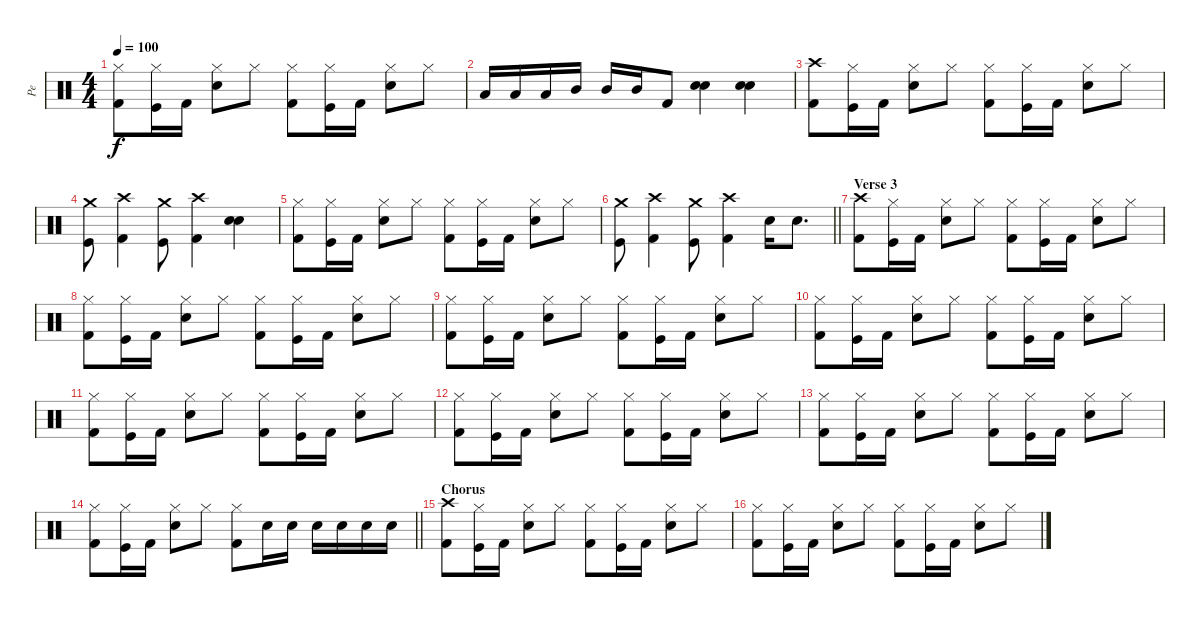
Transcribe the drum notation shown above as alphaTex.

\track ("Pe" "Pe") {instrument percussion}
\staff {score}
\articulation defaults
\ts (4 4)
\tempo 100
\clef neutral
\ks c
("Kick (hit) 2" "Hi-Hat (closed)").8{dy f} ("Kick (hit)" "Hi-Hat (closed)").16 "Kick (hit) 2".16 ("Electric Snare (hit)" "Hi-Hat (closed)").8 "Hi-Hat (closed)".8 ("Kick (hit) 2" "Hi-Hat (closed)").8 ("Kick (hit)" "Hi-Hat (closed)").16 "Kick (hit) 2".16 ("Electric Snare (hit)" "Hi-Hat (closed)").8 "Hi-Hat (closed)".8 |
"Low Tom (hit)".16 "Low Tom (hit)".16 "Low Tom (hit)".16 "Mid Tom (hit)".16 "Mid Tom (hit)".16 "Mid Tom (hit)".16 "Kick (hit) 2".8 ("Electric Snare (hit)" "Electric Snare (hit)").4 ("Electric Snare (hit)" "Electric Snare (hit)").4 |
("Kick (hit) 2" "Crash high (hit)").8 ("Kick (hit)" "Hi-Hat (closed)").16 "Kick (hit) 2".16 ("Electric Snare (hit)" "Hi-Hat (closed)").8 "Hi-Hat (closed)".8 ("Kick (hit) 2" "Hi-Hat (closed)").8 ("Kick (hit)" "Hi-Hat (closed)").16 "Kick (hit) 2".16 ("Electric Snare (hit)" "Hi-Hat (closed)").8 "Hi-Hat (closed)".8 |
("Kick (hit)" "Crash medium (hit)").8 ("Kick (hit) 2" "Crash high (hit)").4 ("Kick (hit)" "Crash medium (hit)").8 ("Kick (hit) 2" "Crash high (hit)").4 ("Electric Snare (hit)" "Electric Snare (hit)").4 |
("Kick (hit) 2" "Hi-Hat (closed)").8 ("Kick (hit)" "Hi-Hat (closed)").16 "Kick (hit) 2".16 ("Electric Snare (hit)" "Hi-Hat (closed)").8 "Hi-Hat (closed)".8 ("Kick (hit) 2" "Hi-Hat (closed)").8 ("Kick (hit)" "Hi-Hat (closed)").16 "Kick (hit) 2".16 ("Electric Snare (hit)" "Hi-Hat (closed)").8 "Hi-Hat (closed)".8 |
\barLineRight lightlight
("Kick (hit)" "Crash medium (hit)").8 ("Kick (hit) 2" "Crash high (hit)").4 ("Kick (hit)" "Crash medium (hit)").8 ("Kick (hit) 2" "Crash high (hit)").4 "Electric Snare (hit)".16 "Electric Snare (hit)".8{d} |
\section ("" "Verse 3")
("Kick (hit) 2" "Crash high (hit)").8 ("Kick (hit)" "Hi-Hat (closed)").16 "Kick (hit) 2".16 ("Electric Snare (hit)" "Hi-Hat (closed)").8 "Hi-Hat (closed)".8 ("Kick (hit) 2" "Hi-Hat (closed)").8 ("Kick (hit)" "Hi-Hat (closed)").16 "Kick (hit) 2".16 ("Electric Snare (hit)" "Hi-Hat (closed)").8 "Hi-Hat (closed)".8 |
("Kick (hit) 2" "Hi-Hat (closed)").8 ("Kick (hit)" "Hi-Hat (closed)").16 "Kick (hit) 2".16 ("Electric Snare (hit)" "Hi-Hat (closed)").8 "Hi-Hat (closed)".8 ("Kick (hit) 2" "Hi-Hat (closed)").8 ("Kick (hit)" "Hi-Hat (closed)").16 "Kick (hit) 2".16 ("Electric Snare (hit)" "Hi-Hat (closed)").8 "Hi-Hat (closed)".8 |
("Kick (hit) 2" "Hi-Hat (closed)").8 ("Kick (hit)" "Hi-Hat (closed)").16 "Kick (hit) 2".16 ("Electric Snare (hit)" "Hi-Hat (closed)").8 "Hi-Hat (closed)".8 ("Kick (hit) 2" "Hi-Hat (closed)").8 ("Kick (hit)" "Hi-Hat (closed)").16 "Kick (hit) 2".16 ("Electric Snare (hit)" "Hi-Hat (closed)").8 "Hi-Hat (closed)".8 |
("Kick (hit) 2" "Hi-Hat (closed)").8 ("Kick (hit)" "Hi-Hat (closed)").16 "Kick (hit) 2".16 ("Electric Snare (hit)" "Hi-Hat (closed)").8 "Hi-Hat (closed)".8 ("Kick (hit) 2" "Hi-Hat (closed)").8 ("Kick (hit)" "Hi-Hat (closed)").16 "Kick (hit) 2".16 ("Electric Snare (hit)" "Hi-Hat (closed)").8 "Hi-Hat (closed)".8 |
("Kick (hit) 2" "Hi-Hat (closed)").8 ("Kick (hit)" "Hi-Hat (closed)").16 "Kick (hit) 2".16 ("Electric Snare (hit)" "Hi-Hat (closed)").8 "Hi-Hat (closed)".8 ("Kick (hit) 2" "Hi-Hat (closed)").8 ("Kick (hit)" "Hi-Hat (closed)").16 "Kick (hit) 2".16 ("Electric Snare (hit)" "Hi-Hat (closed)").8 "Hi-Hat (closed)".8 |
("Kick (hit) 2" "Hi-Hat (closed)").8 ("Kick (hit)" "Hi-Hat (closed)").16 "Kick (hit) 2".16 ("Electric Snare (hit)" "Hi-Hat (closed)").8 "Hi-Hat (closed)".8 ("Kick (hit) 2" "Hi-Hat (closed)").8 ("Kick (hit)" "Hi-Hat (closed)").16 "Kick (hit) 2".16 ("Electric Snare (hit)" "Hi-Hat (closed)").8 "Hi-Hat (closed)".8 |
("Kick (hit) 2" "Hi-Hat (closed)").8 ("Kick (hit)" "Hi-Hat (closed)").16 "Kick (hit) 2".16 ("Electric Snare (hit)" "Hi-Hat (closed)").8 "Hi-Hat (closed)".8 ("Kick (hit) 2" "Hi-Hat (closed)").8 ("Kick (hit)" "Hi-Hat (closed)").16 "Kick (hit) 2".16 ("Electric Snare (hit)" "Hi-Hat (closed)").8 "Hi-Hat (closed)".8 |
\barLineRight lightlight
("Kick (hit) 2" "Hi-Hat (closed)").8 ("Kick (hit)" "Hi-Hat (closed)").16 "Kick (hit) 2".16 ("Electric Snare (hit)" "Hi-Hat (closed)").8 "Hi-Hat (closed)".8 ("Kick (hit) 2" "Hi-Hat (closed)").8 "Electric Snare (hit)".16 "Electric Snare (hit)".16 "Electric Snare (hit)".16 "Electric Snare (hit)".16 "Electric Snare (hit)".16 "Electric Snare (hit)".16 |
\section ("" "Chorus")
("Kick (hit) 2" "Crash high (hit)").8 ("Kick (hit)" "Hi-Hat (closed)").16 "Kick (hit) 2".16 ("Electric Snare (hit)" "Hi-Hat (closed)").8 "Hi-Hat (closed)".8 ("Kick (hit) 2" "Hi-Hat (closed)").8 ("Kick (hit)" "Hi-Hat (closed)").16 "Kick (hit) 2".16 ("Electric Snare (hit)" "Hi-Hat (closed)").8 "Hi-Hat (closed)".8 |
("Kick (hit) 2" "Hi-Hat (closed)").8 ("Kick (hit)" "Hi-Hat (closed)").16 "Kick (hit) 2".16 ("Electric Snare (hit)" "Hi-Hat (closed)").8 "Hi-Hat (closed)".8 ("Kick (hit) 2" "Hi-Hat (closed)").8 ("Kick (hit)" "Hi-Hat (closed)").16 "Kick (hit) 2".16 ("Electric Snare (hit)" "Hi-Hat (closed)").8 "Hi-Hat (closed)".8
